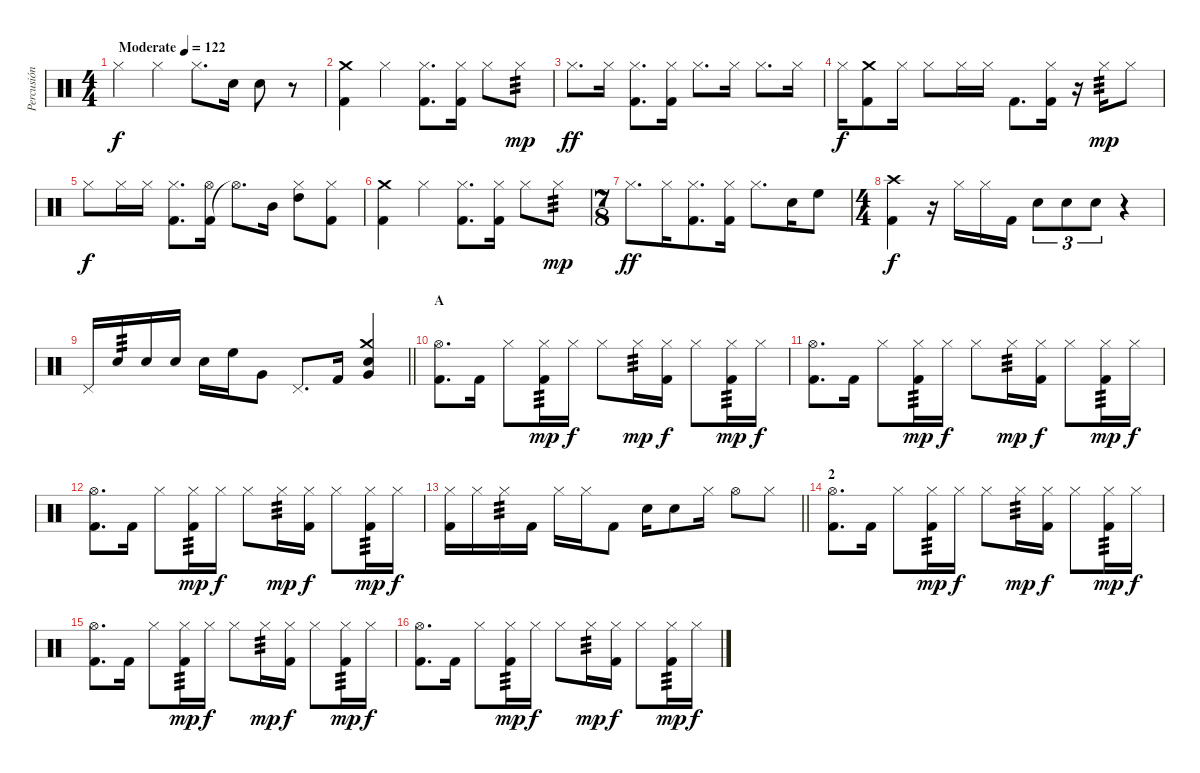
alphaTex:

\track ("Percusión" "Percusión") {instrument percussion}
\staff {score}
\articulation defaults
\ts (4 4)
\tempo (122 "Moderate")
\clef neutral
\ks c "Hi-Hat (closed)".4{dy f} "Hi-Hat (closed)".4 "Hi-Hat (closed)".8{d} "Electric Snare (hit)".16 "Electric Snare (hit)".8
r.8 |
("Crash medium (hit)" "Kick (hit) 2").4 "Hi-Hat (closed)".4 ("Hi-Hat (closed)" "Kick (hit) 2").8{d} ("Hi-Hat (closed)" "Kick (hit) 2").16 "Hi-Hat (closed)".8 "Hi-Hat (closed)".8{tp 3 dy mp} |
"Hi-Hat (closed)".8{d dy ff} "Hi-Hat (closed)".16 ("Hi-Hat (closed)" "Kick (hit) 2").8{d} ("Hi-Hat (closed)" "Kick (hit) 2").16 "Hi-Hat (closed)".8{d} "Hi-Hat (closed)".16 "Hi-Hat (closed)".8{d} "Hi-Hat (closed)".16 |
"Hi-Hat (closed)".16{dy f} ("Crash medium (hit)" "Kick (hit) 2").8 "Hi-Hat (closed)".16 "Hi-Hat (closed)".8 "Hi-Hat (closed)".16 "Hi-Hat (closed)".16 "Kick (hit) 2".8{d} ("Hi-Hat (closed)" "Kick (hit) 2").16 r.16 "Hi-Hat (closed)".16{tp 3 dy mp} "Hi-Hat (closed)".8 |
"Hi-Hat (closed)".8{dy f} "Hi-Hat (closed)".16 "Hi-Hat (closed)".16 ("Hi-Hat (closed)" "Kick (hit) 2").8{d} ("Kick (hit) 2" "Hi-Hat (open)").16 "Hi-Hat (open)"{t}.8{d} "Mid Tom (hit)".16 ("Hi-Hat (closed)" "High Tom (hit)").8 ("Hi-Hat (closed)" "Kick (hit) 2").8 |
("Crash medium (hit)" "Kick (hit) 2").4 "Hi-Hat (closed)".4 ("Hi-Hat (closed)" "Kick (hit) 2").8{d} ("Hi-Hat (closed)" "Kick (hit) 2").16 "Hi-Hat (closed)".8 "Hi-Hat (closed)".8{tp 3 dy mp} |
\ts (7 8)
"Hi-Hat (closed)".8{d dy ff} "Hi-Hat (closed)".16 ("Hi-Hat (closed)" "Kick (hit) 2").8{d} ("Hi-Hat (closed)" "Kick (hit) 2").16 "Hi-Hat (closed)".8{d} "Electric Snare (hit)".16 "High Floor Tom (hit)".8 |
\ts (4 4)
("Crash high (hit)" "Kick (hit) 2").4{dy f} r.16 "Hi-Hat (closed)".16 "Hi-Hat (closed)".16 "Kick (hit) 2".16 "Electric Snare (hit)".8{tu (3 2)} "Electric Snare (hit)".8{tu (3 2)} "Electric Snare (hit)".8{tu (3 2)} r.4 |
\barLineRight lightlight "Pedal Hi-Hat (hit)".16 "Electric Snare (hit)".16{tp 3} "Electric Snare (hit)".16 "Electric Snare (hit)".16 "Electric Snare (hit)".16 "High Floor Tom (hit)".16 "Very Low Tom (hit)".8 "Pedal Hi-Hat (hit)".8{d} "Kick (hit) 2".16
("Crash medium (hit)" "Very Low Tom (hit)" "Electric Snare (hit)").4 |
\section ("" "A")
("Hi-Hat (open)" "Kick (hit) 2").8{d} "Kick (hit) 2".16 "Hi-Hat (closed)".8 ("Kick (hit) 2" "Hi-Hat (closed)").16{tp 3 dy mp} "Hi-Hat (closed)".16{dy f} "Hi-Hat (closed)".8 "Hi-Hat (closed)".16{tp 3 dy mp} ("Kick (hit) 2" "Hi-Hat (closed)").16{dy f} "Hi-Hat (closed)".8 ("Kick (hit) 2" "Hi-Hat (closed)").16{tp 3 dy mp} "Hi-Hat (closed)".16{dy f} |
("Hi-Hat (open)" "Kick (hit) 2").8{d} "Kick (hit) 2".16 "Hi-Hat (closed)".8 ("Kick (hit) 2" "Hi-Hat (closed)").16{tp 3 dy mp} "Hi-Hat (closed)".16{dy f} "Hi-Hat (closed)".8 "Hi-Hat (closed)".16{tp 3 dy mp} ("Kick (hit) 2" "Hi-Hat (closed)").16{dy f} "Hi-Hat (closed)".8 ("Kick (hit) 2" "Hi-Hat (closed)").16{tp 3 dy mp} "Hi-Hat (closed)".16{dy f} |
("Hi-Hat (open)" "Kick (hit) 2").8{d} "Kick (hit) 2".16 "Hi-Hat (closed)".8 ("Kick (hit) 2" "Hi-Hat (closed)").16{tp 3 dy mp} "Hi-Hat (closed)".16{dy f} "Hi-Hat (closed)".8 "Hi-Hat (closed)".16{tp 3 dy mp} ("Kick (hit) 2" "Hi-Hat (closed)").16{dy f} "Hi-Hat (closed)".8 ("Kick (hit) 2" "Hi-Hat (closed)").16{tp 3 dy mp} "Hi-Hat (closed)".16{dy f} |
\barLineRight lightlight
("Hi-Hat (closed)" "Kick (hit) 2").16 "Hi-Hat (closed)".16 "Hi-Hat (closed)".16{tp 3} "Kick (hit) 2".16 "Hi-Hat (closed)".16 "Hi-Hat (closed)".16 "Kick (hit) 2".8 "Electric Snare (hit)".16 "Electric Snare (hit)".8 "Hi-Hat (closed)".16 "Hi-Hat (open)".8 "Hi-Hat (closed)".8 |
\section ("" "2")
("Hi-Hat (open)" "Kick (hit) 2").8{d} "Kick (hit) 2".16 "Hi-Hat (closed)".8 ("Kick (hit) 2" "Hi-Hat (closed)").16{tp 3 dy mp} "Hi-Hat (closed)".16{dy f} "Hi-Hat (closed)".8 "Hi-Hat (closed)".16{tp 3 dy mp} ("Kick (hit) 2" "Hi-Hat (closed)").16{dy f} "Hi-Hat (closed)".8 ("Kick (hit) 2" "Hi-Hat (closed)").16{tp 3 dy mp} "Hi-Hat (closed)".16{dy f} |
("Hi-Hat (open)" "Kick (hit) 2").8{d} "Kick (hit) 2".16 "Hi-Hat (closed)".8 ("Kick (hit) 2" "Hi-Hat (closed)").16{tp 3 dy mp} "Hi-Hat (closed)".16{dy f} "Hi-Hat (closed)".8 "Hi-Hat (closed)".16{tp 3 dy mp} ("Kick (hit) 2" "Hi-Hat (closed)").16{dy f} "Hi-Hat (closed)".8 ("Kick (hit) 2" "Hi-Hat (closed)").16{tp 3 dy mp} "Hi-Hat (closed)".16{dy f} |
("Hi-Hat (open)" "Kick (hit) 2").8{d} "Kick (hit) 2".16 "Hi-Hat (closed)".8 ("Kick (hit) 2" "Hi-Hat (closed)").16{tp 3 dy mp} "Hi-Hat (closed)".16{dy f} "Hi-Hat (closed)".8 "Hi-Hat (closed)".16{tp 3 dy mp} ("Kick (hit) 2" "Hi-Hat (closed)").16{dy f} "Hi-Hat (closed)".8 ("Kick (hit) 2" "Hi-Hat (closed)").16{tp 3 dy mp} "Hi-Hat (closed)".16{dy f}
